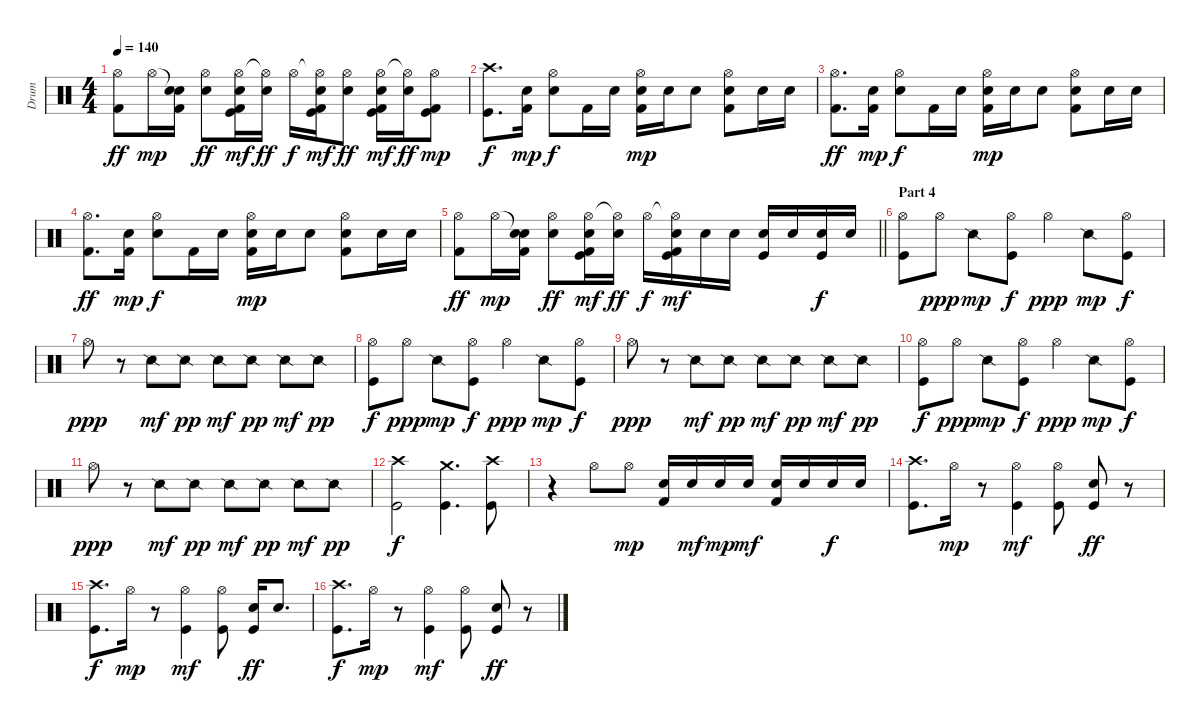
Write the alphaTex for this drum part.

\track ("Drum" "Drum") {instrument percussion}
\staff {score}
\articulation defaults
\ts (4 4)
\tempo 140
\clef neutral
\ks c
("Hi-Hat (open)" "Kick (hit) 2").8{dy ff} "Hi-Hat (open)".16{dy mp} ("Snare (hit)"{t} "Electric Snare (hit)" "Kick (hit) 2").16 ("Hi-Hat (open)" "Electric Snare (hit)").8{dy ff} ("Hi-Hat (open)" "Electric Snare (hit)" "Kick (hit)" "Kick (hit) 2").16{dy mf} ("Hi-Hat (open)"{t} "Electric Snare (hit)").16{dy ff} "Hi-Hat (open)".16{dy f} ("Hi-Hat (open)"{t} "Electric Snare (hit)" "Kick (hit)" "Kick (hit) 2").16{dy mf} ("Hi-Hat (open)" "Electric Snare (hit)").8{dy ff} ("Hi-Hat (open)" "Electric Snare (hit)" "Kick (hit)" "Kick (hit) 2").16{dy mf} ("Hi-Hat (open)"{t} "Electric Snare (hit)").16{dy ff} ("Hi-Hat (open)" "Kick (hit)" "Kick (hit) 2").8{dy mp} |
("Crash high (hit)" "Kick (hit)").8{d dy f} ("Electric Snare (hit)" "Kick (hit) 2").16{dy mp} ("Hi-Hat (open)" "Electric Snare (hit)").8{dy f} "Kick (hit) 2".16 "Electric Snare (hit)".16 ("Hi-Hat (open)" "Electric Snare (hit)" "Kick (hit) 2").16{dy mp} "Electric Snare (hit)".16 "Electric Snare (hit)".8 ("Hi-Hat (open)" "Electric Snare (hit)" "Kick (hit) 2").8 "Electric Snare (hit)".16 "Electric Snare (hit)".16 |
("Hi-Hat (open)" "Kick (hit) 2").8{d dy ff} ("Electric Snare (hit)" "Kick (hit) 2").16{dy mp} ("Hi-Hat (open)" "Electric Snare (hit)").8{dy f} "Kick (hit) 2".16 "Electric Snare (hit)".16 ("Hi-Hat (open)" "Electric Snare (hit)" "Kick (hit) 2").16{dy mp} "Electric Snare (hit)".16 "Electric Snare (hit)".8 ("Hi-Hat (open)" "Electric Snare (hit)" "Kick (hit) 2").8 "Electric Snare (hit)".16 "Electric Snare (hit)".16 |
("Hi-Hat (open)" "Kick (hit) 2").8{d dy ff} ("Electric Snare (hit)" "Kick (hit) 2").16{dy mp} ("Hi-Hat (open)" "Electric Snare (hit)").8{dy f} "Kick (hit) 2".16 "Electric Snare (hit)".16 ("Hi-Hat (open)" "Electric Snare (hit)" "Kick (hit) 2").16{dy mp} "Electric Snare (hit)".16 "Electric Snare (hit)".8 ("Hi-Hat (open)" "Electric Snare (hit)" "Kick (hit) 2").8 "Electric Snare (hit)".16 "Electric Snare (hit)".16 |
\barLineRight lightlight
("Hi-Hat (open)" "Kick (hit) 2").8{dy ff} "Hi-Hat (open)".16{dy mp} ("Snare (hit)"{t} "Electric Snare (hit)" "Kick (hit) 2").16 ("Hi-Hat (open)" "Electric Snare (hit)").8{dy ff} ("Hi-Hat (open)" "Electric Snare (hit)" "Kick (hit)" "Kick (hit) 2").16{dy mf} ("Hi-Hat (open)"{t} "Electric Snare (hit)").16{dy ff} "Hi-Hat (open)".16{dy f} ("Hi-Hat (open)"{t} "Electric Snare (hit)" "Kick (hit)" "Kick (hit) 2").16{dy mf} "Electric Snare (hit)".16 "Electric Snare (hit)".16 ("Electric Snare (hit)" "Kick (hit)").16 "Electric Snare (hit)".16 ("Electric Snare (hit)" "Kick (hit)").16{dy f} "Electric Snare (hit)".16 |
\section ("" "Part 4")
("Hi-Hat (open)" "Kick (hit)").8 "Hi-Hat (open)".8{dy ppp} "Snare (side stick) 2".8{dy mp} ("Hi-Hat (open)" "Kick (hit)").8{dy f} "Hi-Hat (open)".4{dy ppp} "Snare (side stick) 2".8{dy mp} ("Hi-Hat (open)" "Kick (hit)").8{dy f} |
"Hi-Hat (open)".8{dy ppp} r.8 "Snare (side stick) 2".8{dy mf} "Snare (side stick) 2".8{dy pp} "Snare (side stick) 2".8{dy mf} "Snare (side stick) 2".8{dy pp} "Snare (side stick) 2".8{dy mf} "Snare (side stick) 2".8{dy pp} |
("Hi-Hat (open)" "Kick (hit)").8{dy f} "Hi-Hat (open)".8{dy ppp} "Snare (side stick) 2".8{dy mp} ("Hi-Hat (open)" "Kick (hit)").8{dy f} "Hi-Hat (open)".4{dy ppp} "Snare (side stick) 2".8{dy mp} ("Hi-Hat (open)" "Kick (hit)").8{dy f} |
"Hi-Hat (open)".8{dy ppp} r.8 "Snare (side stick) 2".8{dy mf} "Snare (side stick) 2".8{dy pp} "Snare (side stick) 2".8{dy mf} "Snare (side stick) 2".8{dy pp} "Snare (side stick) 2".8{dy mf} "Snare (side stick) 2".8{dy pp} |
("Hi-Hat (open)" "Kick (hit)").8{dy f} "Hi-Hat (open)".8{dy ppp} "Snare (side stick) 2".8{dy mp} ("Hi-Hat (open)" "Kick (hit)").8{dy f} "Hi-Hat (open)".4{dy ppp} "Snare (side stick) 2".8{dy mp} ("Hi-Hat (open)" "Kick (hit)").8{dy f} |
"Hi-Hat (open)".8{dy ppp} r.8 "Snare (side stick) 2".8{dy mf} "Snare (side stick) 2".8{dy pp} "Snare (side stick) 2".8{dy mf} "Snare (side stick) 2".8{dy pp} "Snare (side stick) 2".8{dy mf} "Snare (side stick) 2".8{dy pp} |
("Crash high (hit)" "Kick (hit)").2{dy f} ("Crash medium (hit)" "Kick (hit)").4{d} ("Crash high (hit)" "Kick (hit)").8 |
r.4 "Hi-Hat (open)".8 "Hi-Hat (open)".8{dy mp} ("Electric Snare (hit)" "Kick (hit) 2").16 "Electric Snare (hit)".16{dy mf} "Electric Snare (hit)".16{dy mp} "Electric Snare (hit)".16{dy mf} ("Electric Snare (hit)" "Kick (hit) 2").16 "Electric Snare (hit)".16 "Electric Snare (hit)".16{dy f} "Electric Snare (hit)".16 |
("Crash high (hit)" "Kick (hit)").8{d} "Hi-Hat (open)".16{dy mp} r.8 ("Hi-Hat (open)" "Kick (hit)").4{dy mf} ("Hi-Hat (open)" "Kick (hit)").8 ("Electric Snare (hit)" "Kick (hit)").8{dy ff} r.8 |
("Crash high (hit)" "Kick (hit)").8{d dy f} "Hi-Hat (open)".16{dy mp} r.8 ("Hi-Hat (open)" "Kick (hit)").4{dy mf} ("Hi-Hat (open)" "Kick (hit)").8 ("Electric Snare (hit)" "Kick (hit)").16{dy ff} "Electric Snare (hit)".8{d} |
("Crash high (hit)" "Kick (hit)").8{d dy f} "Hi-Hat (open)".16{dy mp} r.8 ("Hi-Hat (open)" "Kick (hit)").4{dy mf} ("Hi-Hat (open)" "Kick (hit)").8 ("Electric Snare (hit)" "Kick (hit)").8{dy ff} r.8
